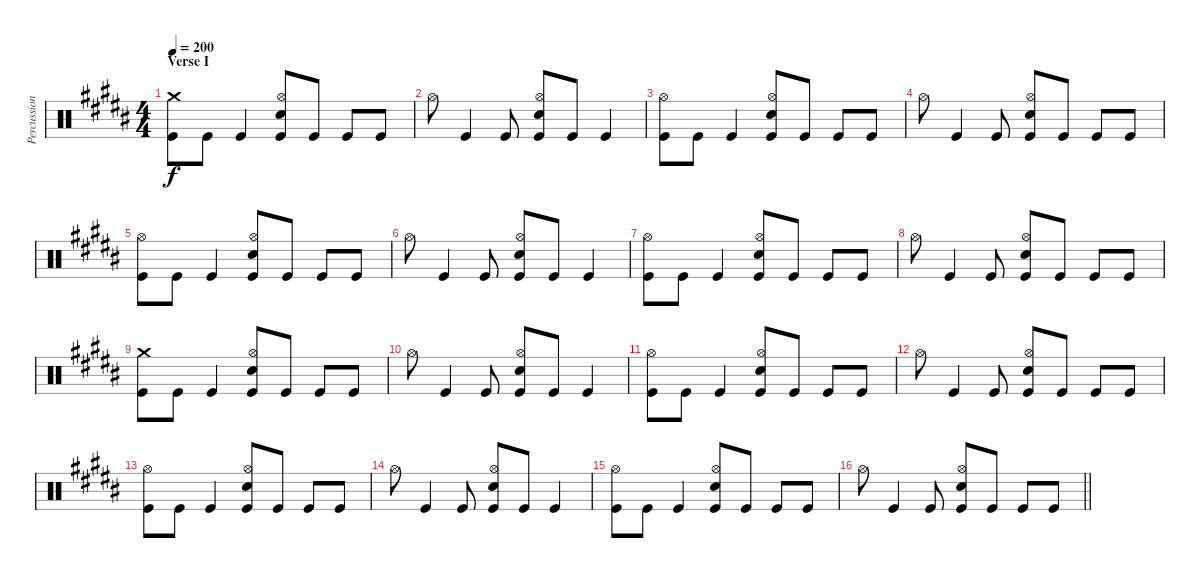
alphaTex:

\track ("Percussion" "Percussion") {instrument percussion}
\staff {score}
\articulation defaults
\ts (4 4)
\section ("" "Verse I")
\tempo 200
\clef neutral
\ks b
("Crash medium (hit)" "Kick (hit)").8{dy f} "Kick (hit)".8 "Kick (hit)".4 ("Hi-Hat (open)" "Electric Snare (hit)" "Kick (hit)").8 "Kick (hit)".8 "Kick (hit)".8 "Kick (hit)".8 |
"Hi-Hat (open)".8 "Kick (hit)".4 "Kick (hit)".8 ("Hi-Hat (open)" "Electric Snare (hit)" "Kick (hit)").8 "Kick (hit)".8 "Kick (hit)".4 |
("Hi-Hat (open)" "Kick (hit)").8 "Kick (hit)".8 "Kick (hit)".4 ("Hi-Hat (open)" "Electric Snare (hit)" "Kick (hit)").8 "Kick (hit)".8 "Kick (hit)".8 "Kick (hit)".8 |
"Hi-Hat (open)".8 "Kick (hit)".4 "Kick (hit)".8 ("Hi-Hat (open)" "Electric Snare (hit)" "Kick (hit)").8 "Kick (hit)".8 "Kick (hit)".8 "Kick (hit)".8 |
("Hi-Hat (open)" "Kick (hit)").8 "Kick (hit)".8 "Kick (hit)".4 ("Hi-Hat (open)" "Electric Snare (hit)" "Kick (hit)").8 "Kick (hit)".8 "Kick (hit)".8 "Kick (hit)".8 |
"Hi-Hat (open)".8 "Kick (hit)".4 "Kick (hit)".8 ("Hi-Hat (open)" "Electric Snare (hit)" "Kick (hit)").8 "Kick (hit)".8 "Kick (hit)".4 |
("Hi-Hat (open)" "Kick (hit)").8 "Kick (hit)".8 "Kick (hit)".4 ("Hi-Hat (open)" "Electric Snare (hit)" "Kick (hit)").8 "Kick (hit)".8 "Kick (hit)".8 "Kick (hit)".8 |
"Hi-Hat (open)".8 "Kick (hit)".4 "Kick (hit)".8 ("Hi-Hat (open)" "Electric Snare (hit)" "Kick (hit)").8 "Kick (hit)".8 "Kick (hit)".8 "Kick (hit)".8 |
("Crash medium (hit)" "Kick (hit)").8 "Kick (hit)".8 "Kick (hit)".4 ("Hi-Hat (open)" "Electric Snare (hit)" "Kick (hit)").8 "Kick (hit)".8 "Kick (hit)".8 "Kick (hit)".8 |
"Hi-Hat (open)".8 "Kick (hit)".4 "Kick (hit)".8 ("Hi-Hat (open)" "Electric Snare (hit)" "Kick (hit)").8 "Kick (hit)".8 "Kick (hit)".4 |
("Hi-Hat (open)" "Kick (hit)").8 "Kick (hit)".8 "Kick (hit)".4 ("Hi-Hat (open)" "Electric Snare (hit)" "Kick (hit)").8 "Kick (hit)".8 "Kick (hit)".8 "Kick (hit)".8 |
"Hi-Hat (open)".8 "Kick (hit)".4 "Kick (hit)".8 ("Hi-Hat (open)" "Electric Snare (hit)" "Kick (hit)").8 "Kick (hit)".8 "Kick (hit)".8 "Kick (hit)".8 |
("Hi-Hat (open)" "Kick (hit)").8 "Kick (hit)".8 "Kick (hit)".4 ("Hi-Hat (open)" "Electric Snare (hit)" "Kick (hit)").8 "Kick (hit)".8 "Kick (hit)".8 "Kick (hit)".8 |
"Hi-Hat (open)".8 "Kick (hit)".4 "Kick (hit)".8 ("Hi-Hat (open)" "Electric Snare (hit)" "Kick (hit)").8 "Kick (hit)".8 "Kick (hit)".4 |
("Hi-Hat (open)" "Kick (hit)").8 "Kick (hit)".8 "Kick (hit)".4 ("Hi-Hat (open)" "Electric Snare (hit)" "Kick (hit)").8 "Kick (hit)".8 "Kick (hit)".8 "Kick (hit)".8 |
\barLineRight lightlight "Hi-Hat (open)".8 "Kick (hit)".4 "Kick (hit)".8
("Hi-Hat (open)" "Electric Snare (hit)" "Kick (hit)").8 "Kick (hit)".8 "Kick (hit)".8 "Kick (hit)".8
